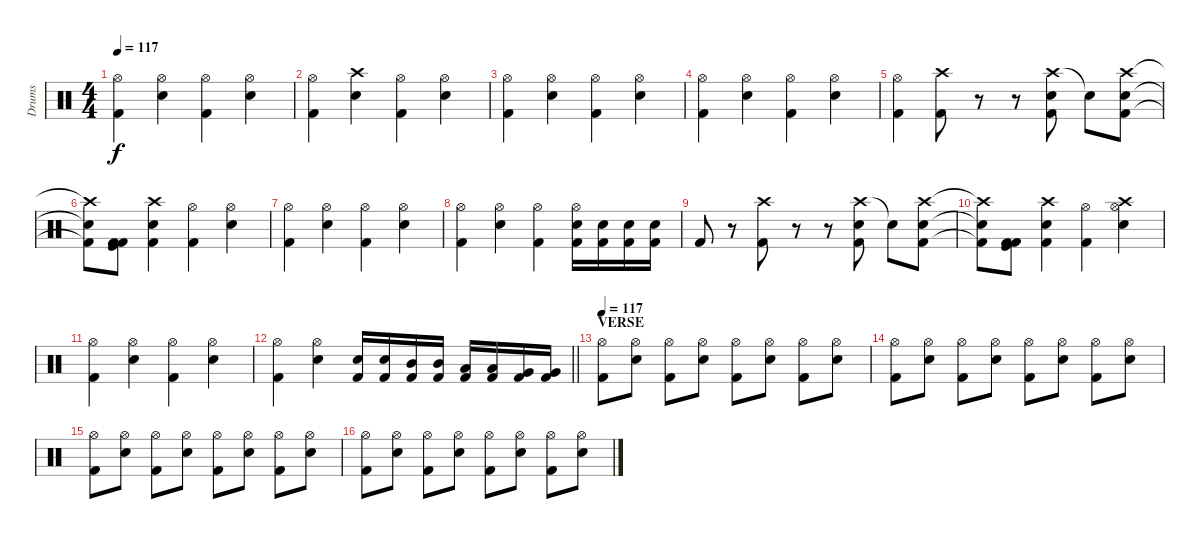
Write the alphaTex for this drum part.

\track ("Drums" "Drums") {instrument percussion}
\staff {score}
\articulation defaults
\ts (4 4)
\tempo 117
\clef neutral
\ks c
("Hi-Hat (open)" "Kick (hit) 2").4{dy f} ("Hi-Hat (open)" "Electric Snare (hit)").4 ("Hi-Hat (open)" "Kick (hit) 2").4 ("Hi-Hat (open)" "Electric Snare (hit)").4 |
("Hi-Hat (open)" "Kick (hit) 2").4 ("Crash high (hit)" "Electric Snare (hit)").4 ("Hi-Hat (open)" "Kick (hit) 2").4 ("Hi-Hat (open)" "Electric Snare (hit)").4 |
("Hi-Hat (open)" "Kick (hit) 2").4 ("Hi-Hat (open)" "Electric Snare (hit)").4 ("Hi-Hat (open)" "Kick (hit) 2").4 ("Hi-Hat (open)" "Electric Snare (hit)").4 |
("Hi-Hat (open)" "Kick (hit) 2").4 ("Hi-Hat (open)" "Electric Snare (hit)").4 ("Hi-Hat (open)" "Kick (hit) 2").4 ("Hi-Hat (open)" "Electric Snare (hit)").4 |
("Hi-Hat (open)" "Kick (hit) 2").4 ("Crash high (hit)" "Kick (hit) 2").8 r.8 r.8 ("Crash high (hit)" "Electric Snare (hit)" "Kick (hit) 2").8 "Snare (hit)"{t}.8 ("Crash high (hit)" "Electric Snare (hit)" "Kick (hit) 2").8 |
("Crash high (hit)"{t} "Electric Snare (hit)"{t} "Kick (hit) 2"{t}).8 ("Kick (hit) 2" "Kick (hit)" "Kick (hit) 2").8 ("Crash high (hit)" "Electric Snare (hit)" "Kick (hit) 2").4 ("Hi-Hat (open)" "Kick (hit) 2").4 ("Hi-Hat (open)" "Electric Snare (hit)").4 |
("Hi-Hat (open)" "Kick (hit) 2").4 ("Hi-Hat (open)" "Electric Snare (hit)").4 ("Hi-Hat (open)" "Kick (hit) 2").4 ("Hi-Hat (open)" "Electric Snare (hit)").4 |
("Hi-Hat (open)" "Kick (hit) 2").4 ("Hi-Hat (open)" "Electric Snare (hit)").4 ("Hi-Hat (open)" "Kick (hit) 2").4 ("Hi-Hat (open)" "Electric Snare (hit)" "Kick (hit) 2").16 ("Electric Snare (hit)" "Kick (hit) 2").16 ("Electric Snare (hit)" "Kick (hit) 2").16 ("Electric Snare (hit)" "Kick (hit) 2").16 |
"Kick (hit) 2".8 r.8 ("Crash high (hit)" "Kick (hit) 2").8 r.8 r.8 ("Crash high (hit)" "Electric Snare (hit)" "Kick (hit) 2").8 "Snare (hit)"{t}.8 ("Crash high (hit)" "Electric Snare (hit)" "Kick (hit) 2").8 |
("Crash high (hit)"{t} "Electric Snare (hit)"{t} "Kick (hit) 2"{t}).8 ("Kick (hit) 2" "Kick (hit)" "Kick (hit) 2").8 ("Crash high (hit)" "Electric Snare (hit)" "Kick (hit) 2").4 ("Hi-Hat (open)" "Kick (hit) 2").4 ("Crash high (hit)" "Hi-Hat (open)" "Electric Snare (hit)").4 |
("Hi-Hat (open)" "Kick (hit) 2").4 ("Hi-Hat (open)" "Electric Snare (hit)").4 ("Hi-Hat (open)" "Kick (hit) 2").4 ("Hi-Hat (open)" "Electric Snare (hit)").4 |
\barLineRight lightlight
("Hi-Hat (open)" "Kick (hit) 2").4 ("Hi-Hat (open)" "Electric Snare (hit)").4 ("Electric Snare (hit)" "Kick (hit) 2").16 ("Electric Snare (hit)" "Kick (hit) 2").16 ("Mid Tom (hit)" "Kick (hit) 2").16 ("Mid Tom (hit)" "Kick (hit) 2").16 ("Low Tom (hit)" "Kick (hit) 2").16 ("Low Tom (hit)" "Kick (hit) 2").16 ("Very Low Tom (hit)" "Kick (hit) 2").16 ("Very Low Tom (hit)" "Kick (hit) 2").16 |
\section ("" "VERSE")
\tempo 117
("Hi-Hat (open)" "Kick (hit) 2").8 ("Hi-Hat (open)" "Electric Snare (hit)").8 ("Hi-Hat (open)" "Kick (hit) 2").8 ("Hi-Hat (open)" "Electric Snare (hit)").8 ("Hi-Hat (open)" "Kick (hit) 2").8 ("Hi-Hat (open)" "Electric Snare (hit)").8 ("Hi-Hat (open)" "Kick (hit) 2").8 ("Hi-Hat (open)" "Electric Snare (hit)").8 |
("Hi-Hat (open)" "Kick (hit) 2").8 ("Hi-Hat (open)" "Electric Snare (hit)").8 ("Hi-Hat (open)" "Kick (hit) 2").8 ("Hi-Hat (open)" "Electric Snare (hit)").8 ("Hi-Hat (open)" "Kick (hit) 2").8 ("Hi-Hat (open)" "Electric Snare (hit)").8 ("Hi-Hat (open)" "Kick (hit) 2").8 ("Hi-Hat (open)" "Electric Snare (hit)").8 |
("Hi-Hat (open)" "Kick (hit) 2").8 ("Hi-Hat (open)" "Electric Snare (hit)").8 ("Hi-Hat (open)" "Kick (hit) 2").8 ("Hi-Hat (open)" "Electric Snare (hit)").8 ("Hi-Hat (open)" "Kick (hit) 2").8 ("Hi-Hat (open)" "Electric Snare (hit)").8 ("Hi-Hat (open)" "Kick (hit) 2").8 ("Hi-Hat (open)" "Electric Snare (hit)").8 |
("Hi-Hat (open)" "Kick (hit) 2").8 ("Hi-Hat (open)" "Electric Snare (hit)").8 ("Hi-Hat (open)" "Kick (hit) 2").8 ("Hi-Hat (open)" "Electric Snare (hit)").8 ("Hi-Hat (open)" "Kick (hit) 2").8 ("Hi-Hat (open)" "Electric Snare (hit)").8 ("Hi-Hat (open)" "Kick (hit) 2").8 ("Hi-Hat (open)" "Electric Snare (hit)").8
